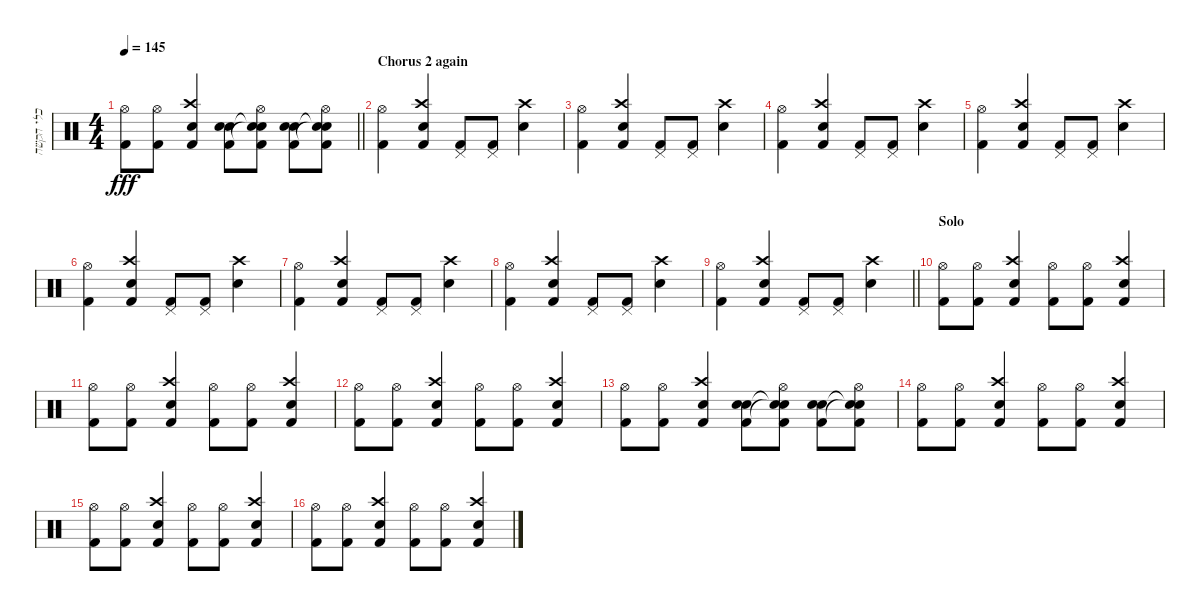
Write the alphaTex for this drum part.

\track ("כלי הקשה" "כלי הקשה") {instrument percussion bank 127}
\staff {score}
\articulation defaults
\ts (4 4)
\tempo 145
\clef neutral
\barLineRight lightlight
\ks c
("Hi-Hat (open)" "Kick (hit) 2").8{dy fff} ("Hi-Hat (open)" "Kick (hit) 2").8 ("Crash high (hit)" "Snare (hit) 2" "Kick (hit) 2").4 ("Snare (hit) 2" "Snare (hit) 2" "Kick (hit) 2").8 ("Hi-Hat (open)" "Snare (hit)"{t} "Snare (hit)"{t} "Kick (hit) 2").8 ("Snare (hit) 2" "Snare (hit) 2" "Kick (hit) 2").8 ("Hi-Hat (open)" "Snare (hit)"{t} "Snare (hit)"{t} "Kick (hit) 2").8 |
\section ("" "Chorus 2 again")
("Hi-Hat (open)" "Kick (hit) 2").4 ("Crash high (hit)" "Snare (hit) 2" "Kick (hit) 2").4 ("Pedal Hi-Hat (hit)" "Kick (hit) 2").8 ("Pedal Hi-Hat (hit)" "Kick (hit) 2").8 ("Crash high (hit)" "Snare (hit) 2").4 |
("Hi-Hat (open)" "Kick (hit) 2").4 ("Crash high (hit)" "Snare (hit) 2" "Kick (hit) 2").4 ("Pedal Hi-Hat (hit)" "Kick (hit) 2").8 ("Pedal Hi-Hat (hit)" "Kick (hit) 2").8 ("Crash high (hit)" "Snare (hit) 2").4 |
("Hi-Hat (open)" "Kick (hit) 2").4 ("Crash high (hit)" "Snare (hit) 2" "Kick (hit) 2").4 ("Pedal Hi-Hat (hit)" "Kick (hit) 2").8 ("Pedal Hi-Hat (hit)" "Kick (hit) 2").8 ("Crash high (hit)" "Snare (hit) 2").4 |
("Hi-Hat (open)" "Kick (hit) 2").4 ("Crash high (hit)" "Snare (hit) 2" "Kick (hit) 2").4 ("Pedal Hi-Hat (hit)" "Kick (hit) 2").8 ("Pedal Hi-Hat (hit)" "Kick (hit) 2").8 ("Crash high (hit)" "Snare (hit) 2").4 |
("Hi-Hat (open)" "Kick (hit) 2").4 ("Crash high (hit)" "Snare (hit) 2" "Kick (hit) 2").4 ("Pedal Hi-Hat (hit)" "Kick (hit) 2").8 ("Pedal Hi-Hat (hit)" "Kick (hit) 2").8 ("Crash high (hit)" "Snare (hit) 2").4 |
("Hi-Hat (open)" "Kick (hit) 2").4 ("Crash high (hit)" "Snare (hit) 2" "Kick (hit) 2").4 ("Pedal Hi-Hat (hit)" "Kick (hit) 2").8 ("Pedal Hi-Hat (hit)" "Kick (hit) 2").8 ("Crash high (hit)" "Snare (hit) 2").4 |
("Hi-Hat (open)" "Kick (hit) 2").4 ("Crash high (hit)" "Snare (hit) 2" "Kick (hit) 2").4 ("Pedal Hi-Hat (hit)" "Kick (hit) 2").8 ("Pedal Hi-Hat (hit)" "Kick (hit) 2").8 ("Crash high (hit)" "Snare (hit) 2").4 |
\barLineRight lightlight
("Hi-Hat (open)" "Kick (hit) 2").4 ("Crash high (hit)" "Snare (hit) 2" "Kick (hit) 2").4 ("Pedal Hi-Hat (hit)" "Kick (hit) 2").8 ("Pedal Hi-Hat (hit)" "Kick (hit) 2").8 ("Crash high (hit)" "Snare (hit) 2").4 |
\section ("" "Solo")
("Hi-Hat (open)" "Kick (hit) 2").8{volume 10} ("Hi-Hat (open)" "Kick (hit) 2").8 ("Crash high (hit)" "Snare (hit) 2" "Kick (hit) 2").4 ("Hi-Hat (open)" "Kick (hit) 2").8 ("Hi-Hat (open)" "Kick (hit) 2").8 ("Crash high (hit)" "Snare (hit) 2" "Kick (hit) 2").4 |
("Hi-Hat (open)" "Kick (hit) 2").8 ("Hi-Hat (open)" "Kick (hit) 2").8 ("Crash high (hit)" "Snare (hit) 2" "Kick (hit) 2").4 ("Hi-Hat (open)" "Kick (hit) 2").8 ("Hi-Hat (open)" "Kick (hit) 2").8 ("Crash high (hit)" "Snare (hit) 2" "Kick (hit) 2").4 |
("Hi-Hat (open)" "Kick (hit) 2").8 ("Hi-Hat (open)" "Kick (hit) 2").8 ("Crash high (hit)" "Snare (hit) 2" "Kick (hit) 2").4 ("Hi-Hat (open)" "Kick (hit) 2").8 ("Hi-Hat (open)" "Kick (hit) 2").8 ("Crash high (hit)" "Snare (hit) 2" "Kick (hit) 2").4 |
("Hi-Hat (open)" "Kick (hit) 2").8 ("Hi-Hat (open)" "Kick (hit) 2").8 ("Crash high (hit)" "Snare (hit) 2" "Kick (hit) 2").4 ("Snare (hit) 2" "Snare (hit) 2" "Kick (hit) 2").8 ("Hi-Hat (open)" "Snare (hit)"{t} "Snare (hit)"{t} "Kick (hit) 2").8 ("Snare (hit) 2" "Snare (hit) 2" "Kick (hit) 2").8 ("Hi-Hat (open)" "Snare (hit)"{t} "Snare (hit)"{t} "Kick (hit) 2").8 |
("Hi-Hat (open)" "Kick (hit) 2").8 ("Hi-Hat (open)" "Kick (hit) 2").8 ("Crash high (hit)" "Snare (hit) 2" "Kick (hit) 2").4 ("Hi-Hat (open)" "Kick (hit) 2").8 ("Hi-Hat (open)" "Kick (hit) 2").8 ("Crash high (hit)" "Snare (hit) 2" "Kick (hit) 2").4 |
("Hi-Hat (open)" "Kick (hit) 2").8 ("Hi-Hat (open)" "Kick (hit) 2").8 ("Crash high (hit)" "Snare (hit) 2" "Kick (hit) 2").4 ("Hi-Hat (open)" "Kick (hit) 2").8 ("Hi-Hat (open)" "Kick (hit) 2").8 ("Crash high (hit)" "Snare (hit) 2" "Kick (hit) 2").4 |
("Hi-Hat (open)" "Kick (hit) 2").8 ("Hi-Hat (open)" "Kick (hit) 2").8 ("Crash high (hit)" "Snare (hit) 2" "Kick (hit) 2").4 ("Hi-Hat (open)" "Kick (hit) 2").8 ("Hi-Hat (open)" "Kick (hit) 2").8 ("Crash high (hit)" "Snare (hit) 2" "Kick (hit) 2").4
